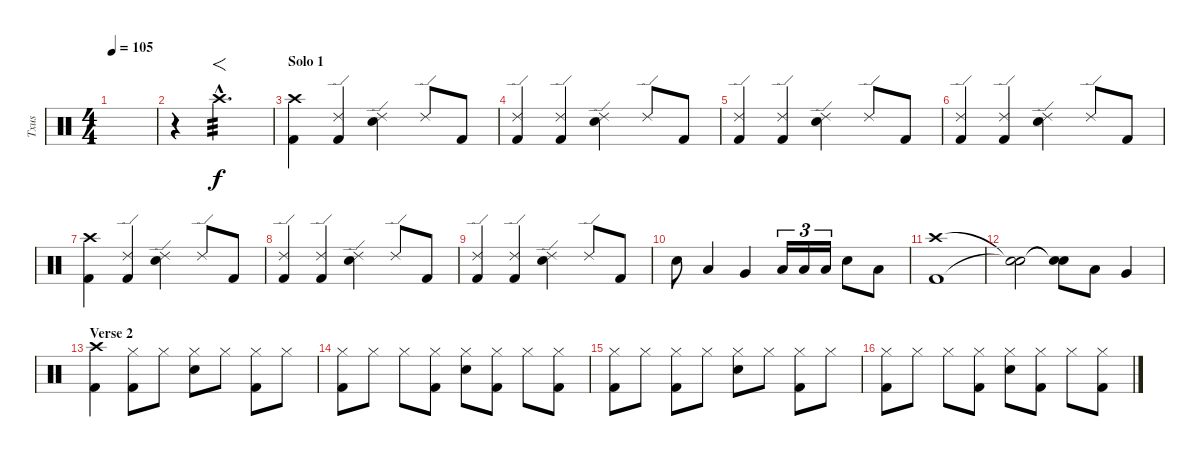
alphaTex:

\track ("Txus" "Txus") {instrument percussion}
\staff {score}
\articulation defaults
\ts (4 4)
\tempo 105
\clef neutral
\ks c
|
r.4{volume 0} "Crash high (hit)"{hac}.2{f d tp 3 volume 13} |
\section ("" "Solo 1")
("Crash high (hit)" "Kick (hit) 2").4 ("Ride (edge) 2" "Kick (hit) 2").4 ("Ride (edge) 2" "Electric Snare (hit)").4 "Ride (edge) 2".8 "Kick (hit) 2".8 |
("Ride (edge) 2" "Kick (hit) 2").4 ("Ride (edge) 2" "Kick (hit) 2").4 ("Ride (edge) 2" "Electric Snare (hit)").4 "Ride (edge) 2".8 "Kick (hit) 2".8 |
("Ride (edge) 2" "Kick (hit) 2").4 ("Ride (edge) 2" "Kick (hit) 2").4 ("Ride (edge) 2" "Electric Snare (hit)").4 "Ride (edge) 2".8 "Kick (hit) 2".8 |
("Ride (edge) 2" "Kick (hit) 2").4 ("Ride (edge) 2" "Kick (hit) 2").4 ("Ride (edge) 2" "Electric Snare (hit)").4 "Ride (edge) 2".8 "Kick (hit) 2".8 |
("Crash high (hit)" "Kick (hit) 2").4 ("Ride (edge) 2" "Kick (hit) 2").4 ("Ride (edge) 2" "Electric Snare (hit)").4 "Ride (edge) 2".8 "Kick (hit) 2".8 |
("Ride (edge) 2" "Kick (hit) 2").4 ("Ride (edge) 2" "Kick (hit) 2").4 ("Ride (edge) 2" "Electric Snare (hit)").4 "Ride (edge) 2".8 "Kick (hit) 2".8 |
("Ride (edge) 2" "Kick (hit) 2").4 ("Ride (edge) 2" "Kick (hit) 2").4 ("Ride (edge) 2" "Electric Snare (hit)").4 "Ride (edge) 2".8 "Kick (hit) 2".8 |
"Electric Snare (hit)".8 "Low Tom (hit)".4 "Very Low Tom (hit)".4 "Low Tom (hit)".16{tu (3 2)} "Low Tom (hit)".16{tu (3 2)} "Low Tom (hit)".16{tu (3 2)} "Electric Snare (hit)".8 "Low Tom (hit)".8 |
("Crash high (hit)" "Kick (hit) 2").1 |
("Snare (hit)"{t} "Snare (hit)"{t}).2 ("Snare (hit)"{t} "Snare (hit)"{t}).8 "Low Tom (hit)".8 "Very Low Tom (hit)".4 |
\section ("" "Verse 2")
("Crash high (hit)" "Kick (hit) 2").4 ("Hi-Hat (closed)" "Kick (hit) 2").8 "Hi-Hat (closed)".8 ("Hi-Hat (closed)" "Electric Snare (hit)").8 "Hi-Hat (closed)".8 ("Hi-Hat (closed)" "Kick (hit) 2").8 "Hi-Hat (closed)".8 |
("Hi-Hat (closed)" "Kick (hit) 2").8 "Hi-Hat (closed)".8 "Hi-Hat (closed)".8 ("Hi-Hat (closed)" "Kick (hit) 2").8 ("Hi-Hat (closed)" "Electric Snare (hit)").8 ("Hi-Hat (closed)" "Kick (hit) 2").8 "Hi-Hat (closed)".8 ("Hi-Hat (closed)" "Kick (hit) 2").8 |
("Hi-Hat (closed)" "Kick (hit) 2").8 "Hi-Hat (closed)".8 ("Hi-Hat (closed)" "Kick (hit) 2").8 "Hi-Hat (closed)".8 ("Hi-Hat (closed)" "Electric Snare (hit)").8 "Hi-Hat (closed)".8 ("Hi-Hat (closed)" "Kick (hit) 2").8 "Hi-Hat (closed)".8 |
("Hi-Hat (closed)" "Kick (hit) 2").8 "Hi-Hat (closed)".8 "Hi-Hat (closed)".8 ("Hi-Hat (closed)" "Kick (hit) 2").8 ("Hi-Hat (closed)" "Electric Snare (hit)").8 ("Hi-Hat (closed)" "Kick (hit) 2").8 "Hi-Hat (closed)".8 ("Hi-Hat (closed)" "Kick (hit) 2").8
